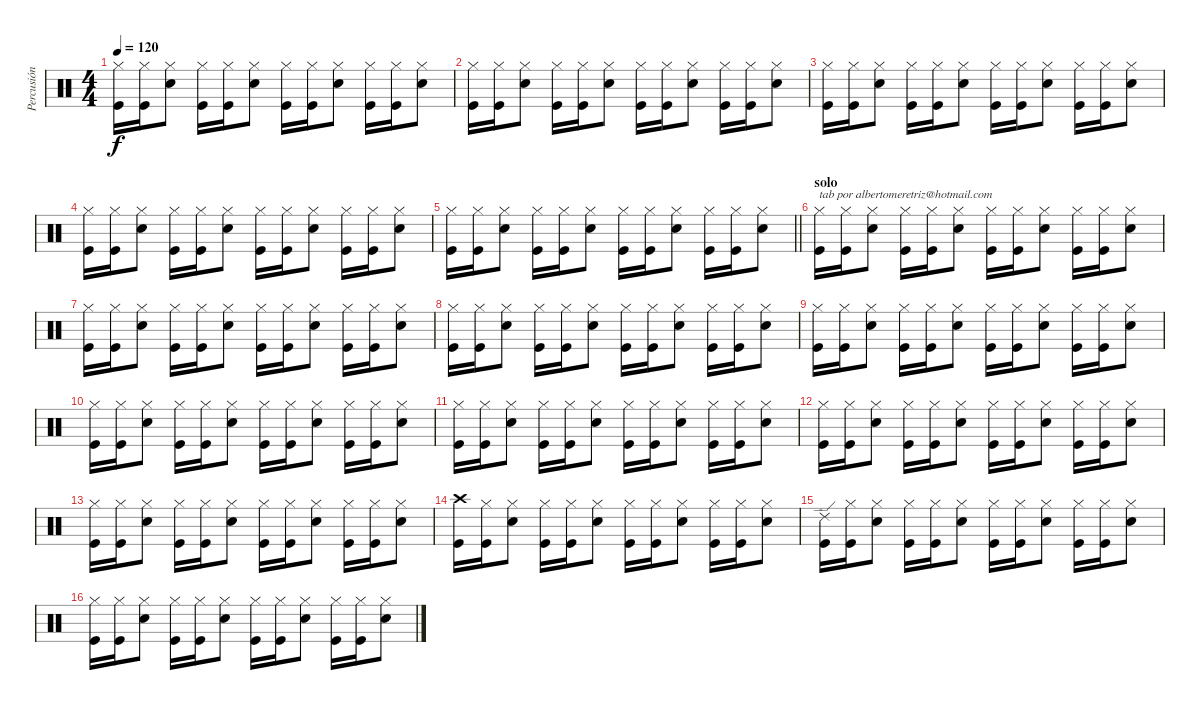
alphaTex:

\track ("Percusión" "Percusión") {instrument percussion}
\staff {score}
\articulation defaults
\ts (4 4)
\tempo 120
\clef neutral
\ks c
("Hi-Hat (closed)" "Kick (hit)").16{dy f} ("Hi-Hat (closed)" "Kick (hit)").16 ("Hi-Hat (closed)" "Electric Snare (hit)").8 ("Hi-Hat (closed)" "Kick (hit)").16 ("Hi-Hat (closed)" "Kick (hit)").16 ("Hi-Hat (closed)" "Electric Snare (hit)").8 ("Hi-Hat (closed)" "Kick (hit)").16 ("Hi-Hat (closed)" "Kick (hit)").16 ("Hi-Hat (closed)" "Electric Snare (hit)").8 ("Hi-Hat (closed)" "Kick (hit)").16 ("Hi-Hat (closed)" "Kick (hit)").16 ("Hi-Hat (closed)" "Electric Snare (hit)").8 |
("Hi-Hat (closed)" "Kick (hit)").16 ("Hi-Hat (closed)" "Kick (hit)").16 ("Hi-Hat (closed)" "Electric Snare (hit)").8 ("Hi-Hat (closed)" "Kick (hit)").16 ("Hi-Hat (closed)" "Kick (hit)").16 ("Hi-Hat (closed)" "Electric Snare (hit)").8 ("Hi-Hat (closed)" "Kick (hit)").16 ("Hi-Hat (closed)" "Kick (hit)").16 ("Hi-Hat (closed)" "Electric Snare (hit)").8 ("Hi-Hat (closed)" "Kick (hit)").16 ("Hi-Hat (closed)" "Kick (hit)").16 ("Hi-Hat (closed)" "Electric Snare (hit)").8 |
("Hi-Hat (closed)" "Kick (hit)").16 ("Hi-Hat (closed)" "Kick (hit)").16 ("Hi-Hat (closed)" "Electric Snare (hit)").8 ("Hi-Hat (closed)" "Kick (hit)").16 ("Hi-Hat (closed)" "Kick (hit)").16 ("Hi-Hat (closed)" "Electric Snare (hit)").8 ("Hi-Hat (closed)" "Kick (hit)").16 ("Hi-Hat (closed)" "Kick (hit)").16 ("Hi-Hat (closed)" "Electric Snare (hit)").8 ("Hi-Hat (closed)" "Kick (hit)").16 ("Hi-Hat (closed)" "Kick (hit)").16 ("Hi-Hat (closed)" "Electric Snare (hit)").8 |
("Hi-Hat (closed)" "Kick (hit)").16 ("Hi-Hat (closed)" "Kick (hit)").16 ("Hi-Hat (closed)" "Electric Snare (hit)").8 ("Hi-Hat (closed)" "Kick (hit)").16 ("Hi-Hat (closed)" "Kick (hit)").16 ("Hi-Hat (closed)" "Electric Snare (hit)").8 ("Hi-Hat (closed)" "Kick (hit)").16 ("Hi-Hat (closed)" "Kick (hit)").16 ("Hi-Hat (closed)" "Electric Snare (hit)").8 ("Hi-Hat (closed)" "Kick (hit)").16 ("Hi-Hat (closed)" "Kick (hit)").16 ("Hi-Hat (closed)" "Electric Snare (hit)").8 |
\barLineRight lightlight
("Hi-Hat (closed)" "Kick (hit)").16 ("Hi-Hat (closed)" "Kick (hit)").16 ("Hi-Hat (closed)" "Electric Snare (hit)").8 ("Hi-Hat (closed)" "Kick (hit)").16 ("Hi-Hat (closed)" "Kick (hit)").16 ("Hi-Hat (closed)" "Electric Snare (hit)").8 ("Hi-Hat (closed)" "Kick (hit)").16 ("Hi-Hat (closed)" "Kick (hit)").16 ("Hi-Hat (closed)" "Electric Snare (hit)").8 ("Hi-Hat (closed)" "Kick (hit)").16 ("Hi-Hat (closed)" "Kick (hit)").16 ("Hi-Hat (closed)" "Electric Snare (hit)").8 |
\section ("" "solo")
("Hi-Hat (closed)" "Kick (hit)").16{txt "tab por albertomeretriz@hotmail.com"} ("Hi-Hat (closed)" "Kick (hit)").16 ("Hi-Hat (closed)" "Electric Snare (hit)").8 ("Hi-Hat (closed)" "Kick (hit)").16 ("Hi-Hat (closed)" "Kick (hit)").16 ("Hi-Hat (closed)" "Electric Snare (hit)").8 ("Hi-Hat (closed)" "Kick (hit)").16 ("Hi-Hat (closed)" "Kick (hit)").16 ("Hi-Hat (closed)" "Electric Snare (hit)").8 ("Hi-Hat (closed)" "Kick (hit)").16 ("Hi-Hat (closed)" "Kick (hit)").16 ("Hi-Hat (closed)" "Electric Snare (hit)").8 |
("Hi-Hat (closed)" "Kick (hit)").16 ("Hi-Hat (closed)" "Kick (hit)").16 ("Hi-Hat (closed)" "Electric Snare (hit)").8 ("Hi-Hat (closed)" "Kick (hit)").16 ("Hi-Hat (closed)" "Kick (hit)").16 ("Hi-Hat (closed)" "Electric Snare (hit)").8 ("Hi-Hat (closed)" "Kick (hit)").16 ("Hi-Hat (closed)" "Kick (hit)").16 ("Hi-Hat (closed)" "Electric Snare (hit)").8 ("Hi-Hat (closed)" "Kick (hit)").16 ("Hi-Hat (closed)" "Kick (hit)").16 ("Hi-Hat (closed)" "Electric Snare (hit)").8 |
("Hi-Hat (closed)" "Kick (hit)").16 ("Hi-Hat (closed)" "Kick (hit)").16 ("Hi-Hat (closed)" "Electric Snare (hit)").8 ("Hi-Hat (closed)" "Kick (hit)").16 ("Hi-Hat (closed)" "Kick (hit)").16 ("Hi-Hat (closed)" "Electric Snare (hit)").8 ("Hi-Hat (closed)" "Kick (hit)").16 ("Hi-Hat (closed)" "Kick (hit)").16 ("Hi-Hat (closed)" "Electric Snare (hit)").8 ("Hi-Hat (closed)" "Kick (hit)").16 ("Hi-Hat (closed)" "Kick (hit)").16 ("Hi-Hat (closed)" "Electric Snare (hit)").8 |
("Hi-Hat (closed)" "Kick (hit)").16 ("Hi-Hat (closed)" "Kick (hit)").16 ("Hi-Hat (closed)" "Electric Snare (hit)").8 ("Hi-Hat (closed)" "Kick (hit)").16 ("Hi-Hat (closed)" "Kick (hit)").16 ("Hi-Hat (closed)" "Electric Snare (hit)").8 ("Hi-Hat (closed)" "Kick (hit)").16 ("Hi-Hat (closed)" "Kick (hit)").16 ("Hi-Hat (closed)" "Electric Snare (hit)").8 ("Hi-Hat (closed)" "Kick (hit)").16 ("Hi-Hat (closed)" "Kick (hit)").16 ("Hi-Hat (closed)" "Electric Snare (hit)").8 |
("Hi-Hat (closed)" "Kick (hit)").16 ("Hi-Hat (closed)" "Kick (hit)").16 ("Hi-Hat (closed)" "Electric Snare (hit)").8 ("Hi-Hat (closed)" "Kick (hit)").16 ("Hi-Hat (closed)" "Kick (hit)").16 ("Hi-Hat (closed)" "Electric Snare (hit)").8 ("Hi-Hat (closed)" "Kick (hit)").16 ("Hi-Hat (closed)" "Kick (hit)").16 ("Hi-Hat (closed)" "Electric Snare (hit)").8 ("Hi-Hat (closed)" "Kick (hit)").16 ("Hi-Hat (closed)" "Kick (hit)").16 ("Hi-Hat (closed)" "Electric Snare (hit)").8 |
("Hi-Hat (closed)" "Kick (hit)").16 ("Hi-Hat (closed)" "Kick (hit)").16 ("Hi-Hat (closed)" "Electric Snare (hit)").8 ("Hi-Hat (closed)" "Kick (hit)").16 ("Hi-Hat (closed)" "Kick (hit)").16 ("Hi-Hat (closed)" "Electric Snare (hit)").8 ("Hi-Hat (closed)" "Kick (hit)").16 ("Hi-Hat (closed)" "Kick (hit)").16 ("Hi-Hat (closed)" "Electric Snare (hit)").8 ("Hi-Hat (closed)" "Kick (hit)").16 ("Hi-Hat (closed)" "Kick (hit)").16 ("Hi-Hat (closed)" "Electric Snare (hit)").8 |
("Hi-Hat (closed)" "Kick (hit)").16 ("Hi-Hat (closed)" "Kick (hit)").16 ("Hi-Hat (closed)" "Electric Snare (hit)").8 ("Hi-Hat (closed)" "Kick (hit)").16 ("Hi-Hat (closed)" "Kick (hit)").16 ("Hi-Hat (closed)" "Electric Snare (hit)").8 ("Hi-Hat (closed)" "Kick (hit)").16 ("Hi-Hat (closed)" "Kick (hit)").16 ("Hi-Hat (closed)" "Electric Snare (hit)").8 ("Hi-Hat (closed)" "Kick (hit)").16 ("Hi-Hat (closed)" "Kick (hit)").16 ("Hi-Hat (closed)" "Electric Snare (hit)").8 |
("Hi-Hat (closed)" "Kick (hit)").16 ("Hi-Hat (closed)" "Kick (hit)").16 ("Hi-Hat (closed)" "Electric Snare (hit)").8 ("Hi-Hat (closed)" "Kick (hit)").16 ("Hi-Hat (closed)" "Kick (hit)").16 ("Hi-Hat (closed)" "Electric Snare (hit)").8 ("Hi-Hat (closed)" "Kick (hit)").16 ("Hi-Hat (closed)" "Kick (hit)").16 ("Hi-Hat (closed)" "Electric Snare (hit)").8 ("Hi-Hat (closed)" "Kick (hit)").16 ("Hi-Hat (closed)" "Kick (hit)").16 ("Hi-Hat (closed)" "Electric Snare (hit)").8 |
("Crash high (hit)" "Kick (hit)").16 ("Hi-Hat (closed)" "Kick (hit)").16 ("Hi-Hat (closed)" "Electric Snare (hit)").8 ("Hi-Hat (closed)" "Kick (hit)").16 ("Hi-Hat (closed)" "Kick (hit)").16 ("Hi-Hat (closed)" "Electric Snare (hit)").8 ("Hi-Hat (closed)" "Kick (hit)").16 ("Hi-Hat (closed)" "Kick (hit)").16 ("Hi-Hat (closed)" "Electric Snare (hit)").8 ("Hi-Hat (closed)" "Kick (hit)").16 ("Hi-Hat (closed)" "Kick (hit)").16 ("Hi-Hat (closed)" "Electric Snare (hit)").8 |
("Ride (edge) 2" "Kick (hit)").16 ("Hi-Hat (closed)" "Kick (hit)").16 ("Hi-Hat (closed)" "Electric Snare (hit)").8 ("Hi-Hat (closed)" "Kick (hit)").16 ("Hi-Hat (closed)" "Kick (hit)").16 ("Hi-Hat (closed)" "Electric Snare (hit)").8 ("Hi-Hat (closed)" "Kick (hit)").16 ("Hi-Hat (closed)" "Kick (hit)").16 ("Hi-Hat (closed)" "Electric Snare (hit)").8 ("Hi-Hat (closed)" "Kick (hit)").16 ("Hi-Hat (closed)" "Kick (hit)").16 ("Hi-Hat (closed)" "Electric Snare (hit)").8 |
("Hi-Hat (closed)" "Kick (hit)").16 ("Hi-Hat (closed)" "Kick (hit)").16 ("Hi-Hat (closed)" "Electric Snare (hit)").8 ("Hi-Hat (closed)" "Kick (hit)").16 ("Hi-Hat (closed)" "Kick (hit)").16 ("Hi-Hat (closed)" "Electric Snare (hit)").8 ("Hi-Hat (closed)" "Kick (hit)").16 ("Hi-Hat (closed)" "Kick (hit)").16 ("Hi-Hat (closed)" "Electric Snare (hit)").8 ("Hi-Hat (closed)" "Kick (hit)").16 ("Hi-Hat (closed)" "Kick (hit)").16 ("Hi-Hat (closed)" "Electric Snare (hit)").8
